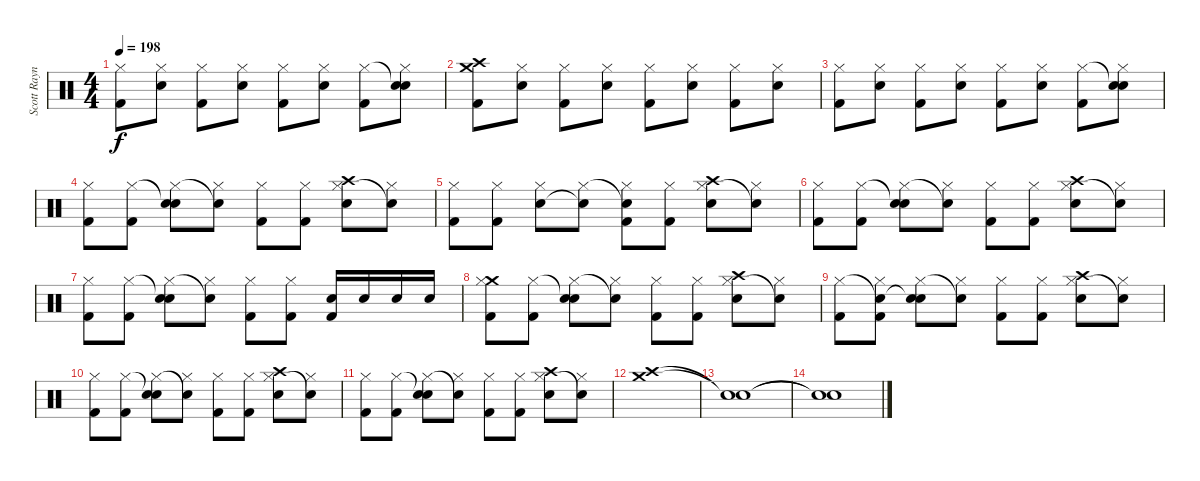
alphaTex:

\track ("Scott Raynor Drums" "Scott Rayn") {instrument percussion}
\staff {score}
\articulation defaults
\ts (4 4)
\tempo 198
\clef neutral
\ks c
("Hi-Hat (closed)" "Kick (hit) 2").8{dy f} ("Hi-Hat (closed)" "Electric Snare (hit)").8 ("Hi-Hat (closed)" "Kick (hit) 2").8 ("Hi-Hat (closed)" "Electric Snare (hit)").8 ("Hi-Hat (closed)" "Kick (hit) 2").8 ("Hi-Hat (closed)" "Electric Snare (hit)").8 ("Hi-Hat (closed)" "Kick (hit) 2").8 ("Snare (hit)"{t} "Hi-Hat (closed)" "Electric Snare (hit)").8 |
("Crash medium (hit)" "Crash high (hit)" "Kick (hit) 2").8 ("Hi-Hat (closed)" "Electric Snare (hit)").8 ("Hi-Hat (closed)" "Kick (hit) 2").8 ("Hi-Hat (closed)" "Electric Snare (hit)").8 ("Hi-Hat (closed)" "Kick (hit) 2").8 ("Hi-Hat (closed)" "Electric Snare (hit)").8 ("Hi-Hat (closed)" "Kick (hit) 2").8 ("Hi-Hat (closed)" "Electric Snare (hit)").8 |
("Hi-Hat (closed)" "Kick (hit) 2").8 ("Hi-Hat (closed)" "Electric Snare (hit)").8 ("Hi-Hat (closed)" "Kick (hit) 2").8 ("Hi-Hat (closed)" "Electric Snare (hit)").8 ("Hi-Hat (closed)" "Kick (hit) 2").8 ("Hi-Hat (closed)" "Electric Snare (hit)").8 ("Hi-Hat (closed)" "Kick (hit) 2").8 ("Snare (hit)"{t} "Hi-Hat (closed)" "Electric Snare (hit)").8 |
("Hi-Hat (closed)" "Kick (hit) 2").8 ("Hi-Hat (closed)" "Kick (hit) 2").8 ("Snare (hit)"{t} "Hi-Hat (closed)" "Electric Snare (hit)").8 ("Hi-Hat (closed)" "Snare (hit)"{t}).8 ("Hi-Hat (closed)" "Kick (hit) 2").8 ("Hi-Hat (closed)" "Kick (hit) 2").8 ("Crash high (hit)" "Hi-Hat (closed)" "Electric Snare (hit)").8 ("Hi-Hat (closed)" "Snare (hit)"{t}).8 |
("Hi-Hat (closed)" "Kick (hit) 2").8 ("Hi-Hat (closed)" "Kick (hit) 2").8 ("Hi-Hat (closed)" "Electric Snare (hit)").8 ("Hi-Hat (closed)" "Snare (hit)"{t}).8 ("Snare (hit)"{t} "Hi-Hat (closed)" "Kick (hit) 2").8 ("Hi-Hat (closed)" "Kick (hit) 2").8 ("Crash high (hit)" "Hi-Hat (closed)" "Electric Snare (hit)").8 ("Hi-Hat (closed)" "Snare (hit)"{t}).8 |
("Hi-Hat (closed)" "Kick (hit) 2").8 ("Hi-Hat (closed)" "Kick (hit) 2").8 ("Snare (hit)"{t} "Hi-Hat (closed)" "Electric Snare (hit)").8 ("Hi-Hat (closed)" "Snare (hit)"{t}).8 ("Hi-Hat (closed)" "Kick (hit) 2").8 ("Hi-Hat (closed)" "Kick (hit) 2").8 ("Crash high (hit)" "Hi-Hat (closed)" "Electric Snare (hit)").8 ("Hi-Hat (closed)" "Snare (hit)"{t}).8 |
("Hi-Hat (closed)" "Kick (hit) 2").8 ("Hi-Hat (closed)" "Kick (hit) 2").8 ("Snare (hit)"{t} "Hi-Hat (closed)" "Electric Snare (hit)").8 ("Hi-Hat (closed)" "Snare (hit)"{t}).8 ("Hi-Hat (closed)" "Kick (hit) 2").8 ("Hi-Hat (closed)" "Kick (hit) 2").8 ("Electric Snare (hit)" "Kick (hit) 2").16 "Electric Snare (hit)".16 "Electric Snare (hit)".16 "Electric Snare (hit)".16 |
("Crash medium (hit)" "Hi-Hat (closed)" "Kick (hit) 2").8 ("Hi-Hat (closed)" "Kick (hit) 2").8 ("Snare (hit)"{t} "Hi-Hat (closed)" "Electric Snare (hit)").8 ("Hi-Hat (closed)" "Snare (hit)"{t}).8 ("Hi-Hat (closed)" "Kick (hit) 2").8 ("Hi-Hat (closed)" "Kick (hit) 2").8 ("Crash high (hit)" "Hi-Hat (closed)" "Electric Snare (hit)").8 ("Hi-Hat (closed)" "Snare (hit)"{t}).8 |
("Hi-Hat (closed)" "Kick (hit) 2").8 ("Snare (hit)"{t} "Hi-Hat (closed)" "Kick (hit) 2").8 ("Snare (hit)"{t} "Hi-Hat (closed)" "Electric Snare (hit)").8 ("Hi-Hat (closed)" "Snare (hit)"{t}).8 ("Hi-Hat (closed)" "Kick (hit) 2").8 ("Hi-Hat (closed)" "Kick (hit) 2").8 ("Crash high (hit)" "Hi-Hat (closed)" "Electric Snare (hit)").8 ("Hi-Hat (closed)" "Snare (hit)"{t}).8 |
("Hi-Hat (closed)" "Kick (hit) 2").8 ("Hi-Hat (closed)" "Kick (hit) 2").8 ("Snare (hit)"{t} "Hi-Hat (closed)" "Electric Snare (hit)").8 ("Hi-Hat (closed)" "Snare (hit)"{t}).8 ("Hi-Hat (closed)" "Kick (hit) 2").8 ("Hi-Hat (closed)" "Kick (hit) 2").8 ("Crash high (hit)" "Hi-Hat (closed)" "Electric Snare (hit)").8 ("Hi-Hat (closed)" "Snare (hit)"{t}).8 |
("Hi-Hat (closed)" "Kick (hit) 2").8 ("Hi-Hat (closed)" "Kick (hit) 2").8 ("Snare (hit)"{t} "Hi-Hat (closed)" "Electric Snare (hit)").8 ("Hi-Hat (closed)" "Snare (hit)"{t}).8 ("Hi-Hat (closed)" "Kick (hit) 2").8 ("Hi-Hat (closed)" "Kick (hit) 2").8 ("Crash high (hit)" "Hi-Hat (closed)" "Electric Snare (hit)").8 ("Hi-Hat (closed)" "Snare (hit)"{t}).8 |
("Crash medium (hit)" "Crash high (hit)").1 |
("Snare (hit)"{t} "Snare (hit)"{t}).1 |
("Snare (hit)"{t} "Snare (hit)"{t}).1
